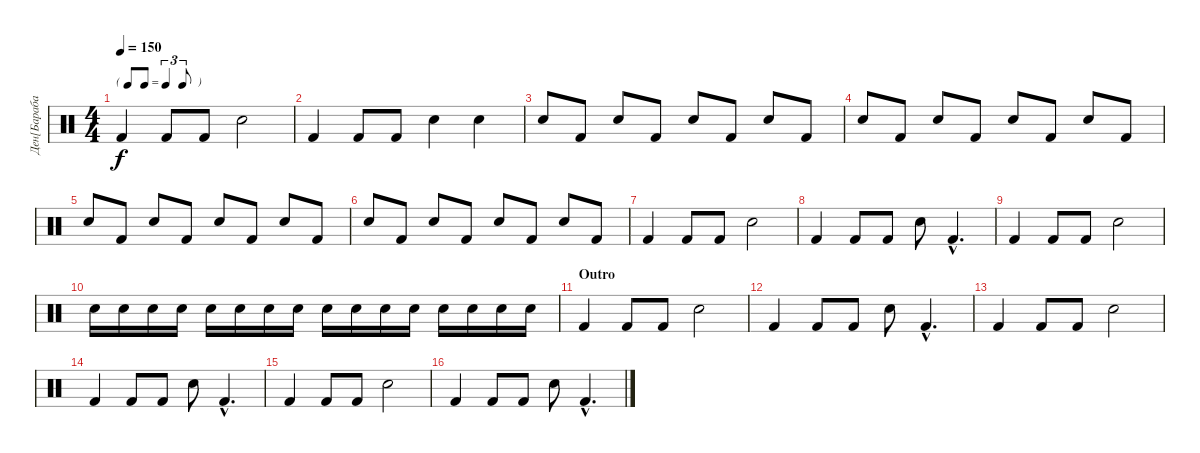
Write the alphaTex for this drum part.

\track ("Ден[Барабаны]" "Ден[Бараба") {instrument percussion}
\staff {score}
\articulation defaults
\ts (4 4)
\tf triplet8th
\tempo 150
\clef neutral
\ks c "Kick (hit) 2".4{dy f} "Kick (hit) 2".8 "Kick (hit) 2".8 "Electric Snare (hit)".2
|
"Kick (hit) 2".4 "Kick (hit) 2".8 "Kick (hit) 2".8 "Electric Snare (hit)".4 "Electric Snare (hit)".4 |
"Electric Snare (hit)".8 "Kick (hit) 2".8 "Electric Snare (hit)".8 "Kick (hit) 2".8 "Electric Snare (hit)".8 "Kick (hit) 2".8 "Electric Snare (hit)".8 "Kick (hit) 2".8 |
"Electric Snare (hit)".8 "Kick (hit) 2".8 "Electric Snare (hit)".8 "Kick (hit) 2".8 "Electric Snare (hit)".8 "Kick (hit) 2".8 "Electric Snare (hit)".8 "Kick (hit) 2".8 |
"Electric Snare (hit)".8 "Kick (hit) 2".8 "Electric Snare (hit)".8 "Kick (hit) 2".8 "Electric Snare (hit)".8 "Kick (hit) 2".8 "Electric Snare (hit)".8 "Kick (hit) 2".8 |
"Electric Snare (hit)".8 "Kick (hit) 2".8 "Electric Snare (hit)".8 "Kick (hit) 2".8 "Electric Snare (hit)".8 "Kick (hit) 2".8 "Electric Snare (hit)".8 "Kick (hit) 2".8 |
"Kick (hit) 2".4 "Kick (hit) 2".8 "Kick (hit) 2".8 "Electric Snare (hit)".2 |
"Kick (hit) 2".4 "Kick (hit) 2".8 "Kick (hit) 2".8 "Electric Snare (hit)".8 "Kick (hit) 2"{hac}.4{d} |
"Kick (hit) 2".4 "Kick (hit) 2".8 "Kick (hit) 2".8 "Electric Snare (hit)".2 |
"Electric Snare (hit)".16{volume 6} "Electric Snare (hit)".16 "Electric Snare (hit)".16{volume 8} "Electric Snare (hit)".16 "Electric Snare (hit)".16{volume 10} "Electric Snare (hit)".16 "Electric Snare (hit)".16{volume 12} "Electric Snare (hit)".16 "Electric Snare (hit)".16{volume 14} "Electric Snare (hit)".16 "Electric Snare (hit)".16 "Electric Snare (hit)".16 "Electric Snare (hit)".16 "Electric Snare (hit)".16 "Electric Snare (hit)".16 "Electric Snare (hit)".16 |
\section ("" "Outro")
"Kick (hit) 2".4{volume 12} "Kick (hit) 2".8 "Kick (hit) 2".8 "Electric Snare (hit)".2 |
"Kick (hit) 2".4 "Kick (hit) 2".8 "Kick (hit) 2".8 "Electric Snare (hit)".8 "Kick (hit) 2"{hac}.4{d} |
"Kick (hit) 2".4 "Kick (hit) 2".8 "Kick (hit) 2".8 "Electric Snare (hit)".2 |
"Kick (hit) 2".4 "Kick (hit) 2".8 "Kick (hit) 2".8 "Electric Snare (hit)".8 "Kick (hit) 2"{hac}.4{d} |
"Kick (hit) 2".4 "Kick (hit) 2".8 "Kick (hit) 2".8 "Electric Snare (hit)".2 |
"Kick (hit) 2".4 "Kick (hit) 2".8 "Kick (hit) 2".8 "Electric Snare (hit)".8 "Kick (hit) 2"{hac}.4{d}
